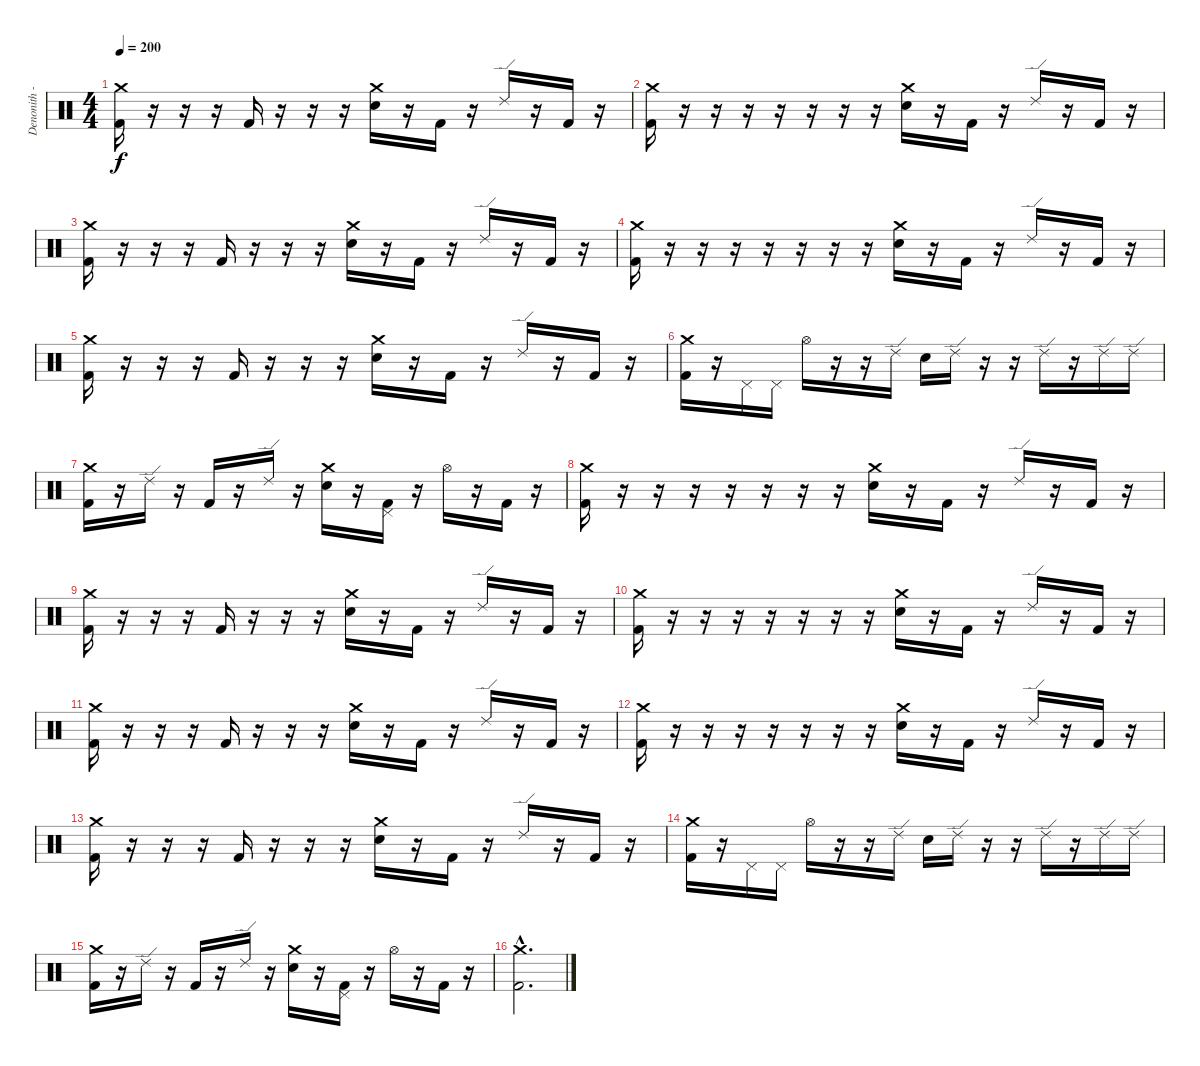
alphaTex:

\track ("Denonith - Spyros" "Denonith -") {instrument percussion}
\staff {score}
\articulation defaults
\ts (4 4)
\tempo 200
\clef neutral
\ks c
("Crash medium (hit)" "Kick (hit) 2").16{dy f} r.16 r.16 r.16 "Kick (hit) 2".16 r.16 r.16 r.16 ("Crash medium (hit)" "Electric Snare (hit)").16 r.16 "Kick (hit) 2".16 r.16 "Ride (edge) 2".16 r.16 "Kick (hit) 2".16 r.16 |
("Crash medium (hit)" "Kick (hit) 2").16 r.16 r.16 r.16 r.16 r.16 r.16 r.16 ("Crash medium (hit)" "Electric Snare (hit)").16 r.16 "Kick (hit) 2".16 r.16 "Ride (edge) 2".16 r.16 "Kick (hit) 2".16 r.16 |
("Crash medium (hit)" "Kick (hit) 2").16 r.16 r.16 r.16 "Kick (hit) 2".16 r.16 r.16 r.16 ("Crash medium (hit)" "Electric Snare (hit)").16 r.16 "Kick (hit) 2".16 r.16 "Ride (edge) 2".16 r.16 "Kick (hit) 2".16 r.16 |
("Crash medium (hit)" "Kick (hit) 2").16 r.16 r.16 r.16 r.16 r.16 r.16 r.16 ("Crash medium (hit)" "Electric Snare (hit)").16 r.16 "Kick (hit) 2".16 r.16 "Ride (edge) 2".16 r.16 "Kick (hit) 2".16 r.16 |
("Crash medium (hit)" "Kick (hit) 2").16 r.16 r.16 r.16 "Kick (hit) 2".16 r.16 r.16 r.16 ("Crash medium (hit)" "Electric Snare (hit)").16 r.16 "Kick (hit) 2".16 r.16 "Ride (edge) 2".16 r.16 "Kick (hit) 2".16 r.16 |
("Crash medium (hit)" "Kick (hit) 2").16 r.16 "Pedal Hi-Hat (hit)".16 "Pedal Hi-Hat (hit)".16 "Hi-Hat (open)".16 r.16 r.16 "Ride (edge) 2".16 "Electric Snare (hit)".16 "Ride (edge) 2".16 r.16 r.16 "Ride (edge) 2".16 r.16 "Ride (edge) 2".16 "Ride (edge) 2".16 |
("Crash medium (hit)" "Kick (hit) 2").16 r.16 "Ride (edge) 2".16 r.16 "Kick (hit) 2".16 r.16 "Ride (edge) 2".16 r.16 ("Crash medium (hit)" "Electric Snare (hit)").16 r.16 ("Pedal Hi-Hat (hit)" "Kick (hit) 2").16 r.16 "Hi-Hat (open)".16 r.16 "Kick (hit) 2".16 r.16 |
("Crash medium (hit)" "Kick (hit) 2").16 r.16 r.16 r.16 r.16 r.16 r.16 r.16 ("Crash medium (hit)" "Electric Snare (hit)").16 r.16 "Kick (hit) 2".16 r.16 "Ride (edge) 2".16 r.16 "Kick (hit) 2".16 r.16 |
("Crash medium (hit)" "Kick (hit) 2").16 r.16 r.16 r.16 "Kick (hit) 2".16 r.16 r.16 r.16 ("Crash medium (hit)" "Electric Snare (hit)").16 r.16 "Kick (hit) 2".16 r.16 "Ride (edge) 2".16 r.16 "Kick (hit) 2".16 r.16 |
("Crash medium (hit)" "Kick (hit) 2").16 r.16 r.16 r.16 r.16 r.16 r.16 r.16 ("Crash medium (hit)" "Electric Snare (hit)").16 r.16 "Kick (hit) 2".16 r.16 "Ride (edge) 2".16 r.16 "Kick (hit) 2".16 r.16 |
("Crash medium (hit)" "Kick (hit) 2").16 r.16 r.16 r.16 "Kick (hit) 2".16 r.16 r.16 r.16 ("Crash medium (hit)" "Electric Snare (hit)").16 r.16 "Kick (hit) 2".16 r.16 "Ride (edge) 2".16 r.16 "Kick (hit) 2".16 r.16 |
("Crash medium (hit)" "Kick (hit) 2").16 r.16 r.16 r.16 r.16 r.16 r.16 r.16 ("Crash medium (hit)" "Electric Snare (hit)").16 r.16 "Kick (hit) 2".16 r.16 "Ride (edge) 2".16 r.16 "Kick (hit) 2".16 r.16 |
("Crash medium (hit)" "Kick (hit) 2").16 r.16 r.16 r.16 "Kick (hit) 2".16 r.16 r.16 r.16 ("Crash medium (hit)" "Electric Snare (hit)").16 r.16 "Kick (hit) 2".16 r.16 "Ride (edge) 2".16 r.16 "Kick (hit) 2".16 r.16 |
("Crash medium (hit)" "Kick (hit) 2").16 r.16 "Pedal Hi-Hat (hit)".16 "Pedal Hi-Hat (hit)".16 "Hi-Hat (open)".16 r.16 r.16 "Ride (edge) 2".16 "Electric Snare (hit)".16 "Ride (edge) 2".16 r.16 r.16 "Ride (edge) 2".16 r.16 "Ride (edge) 2".16 "Ride (edge) 2".16 |
("Crash medium (hit)" "Kick (hit) 2").16 r.16 "Ride (edge) 2".16 r.16 "Kick (hit) 2".16 r.16 "Ride (edge) 2".16 r.16 ("Crash medium (hit)" "Electric Snare (hit)").16 r.16 ("Pedal Hi-Hat (hit)" "Kick (hit) 2").16 r.16 "Hi-Hat (open)".16 r.16 "Kick (hit) 2".16 r.16 |
("Crash medium (hit)"{hac} "Kick (hit) 2"{hac}).2{d}
